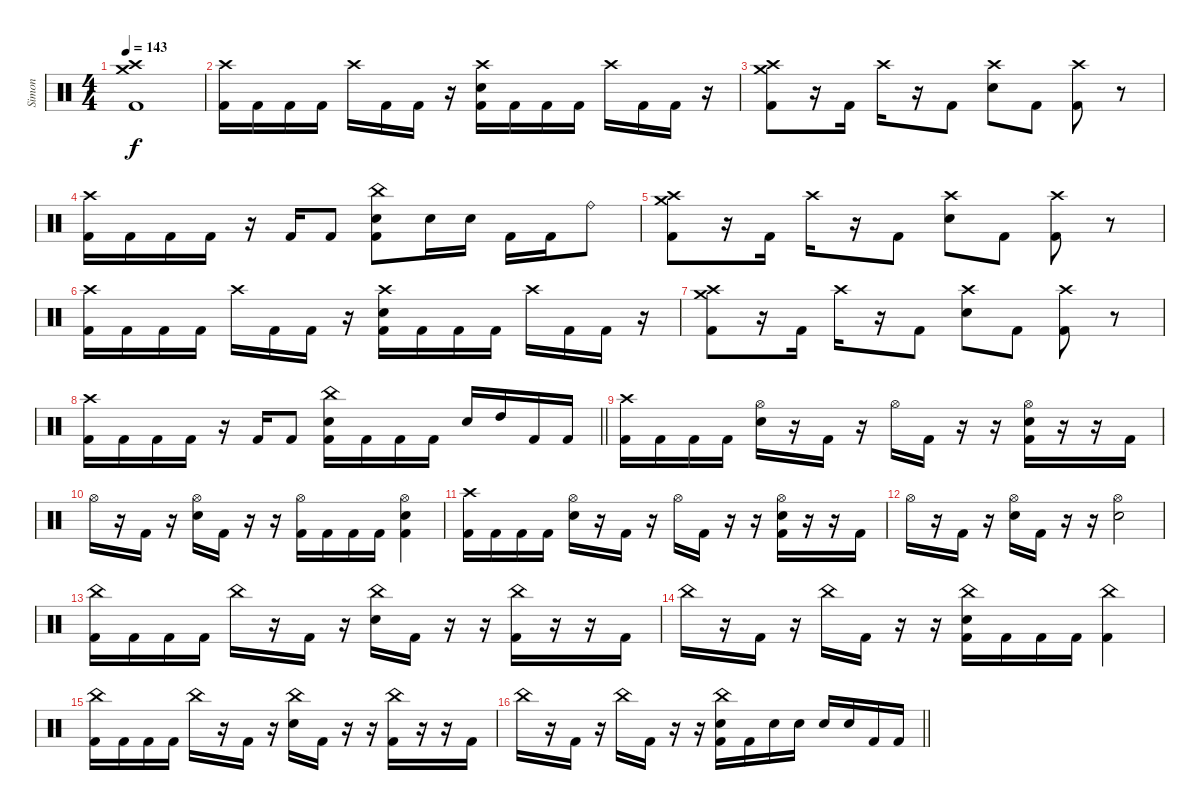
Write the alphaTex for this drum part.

\track ("Simon" "Simon") {instrument percussion}
\staff {score}
\articulation defaults
\ts (4 4)
\section ("" "")
\tempo 143
\clef neutral
\ks c
("Crash high (hit)" "Crash medium (hit)" "Kick (hit) 2").1{dy f} |
("Crash high (hit)" "Kick (hit) 2").16 "Kick (hit) 2".16 "Kick (hit) 2".16 "Kick (hit) 2".16 "Crash high (hit)".16 "Kick (hit) 2".16 "Kick (hit) 2".16 r.16 ("Crash high (hit)" "Electric Snare (hit)" "Kick (hit) 2").16 "Kick (hit) 2".16 "Kick (hit) 2".16 "Kick (hit) 2".16 "Crash high (hit)".16 "Kick (hit) 2".16 "Kick (hit) 2".16 r.16 |
("Crash high (hit)" "Crash medium (hit)" "Kick (hit) 2").8 r.16 "Kick (hit) 2".16 "Crash high (hit)".16 r.16 "Kick (hit) 2".8 ("Crash high (hit)" "Electric Snare (hit)").8 "Kick (hit) 2".8 ("Crash high (hit)" "Kick (hit) 2").8 r.8 |
("Crash high (hit)" "Kick (hit) 2").16 "Kick (hit) 2".16 "Kick (hit) 2".16 "Kick (hit) 2".16 r.16 "Kick (hit) 2".16 "Kick (hit) 2".8 ("China (hit)" "Electric Snare (hit)" "Kick (hit) 2").8 "Electric Snare (hit)".16 "Electric Snare (hit)".16 "Kick (hit) 2".16 "Kick (hit) 2".16 "Ride (bell)".8 |
("Crash high (hit)" "Crash medium (hit)" "Kick (hit) 2").8 r.16 "Kick (hit) 2".16 "Crash high (hit)".16 r.16 "Kick (hit) 2".8 ("Crash high (hit)" "Electric Snare (hit)").8 "Kick (hit) 2".8 ("Crash high (hit)" "Kick (hit) 2").8 r.8 |
("Crash high (hit)" "Kick (hit) 2").16 "Kick (hit) 2".16 "Kick (hit) 2".16 "Kick (hit) 2".16 "Crash high (hit)".16 "Kick (hit) 2".16 "Kick (hit) 2".16 r.16 ("Crash high (hit)" "Electric Snare (hit)" "Kick (hit) 2").16 "Kick (hit) 2".16 "Kick (hit) 2".16 "Kick (hit) 2".16 "Crash high (hit)".16 "Kick (hit) 2".16 "Kick (hit) 2".16 r.16 |
("Crash high (hit)" "Crash medium (hit)" "Kick (hit) 2").8 r.16 "Kick (hit) 2".16 "Crash high (hit)".16 r.16 "Kick (hit) 2".8 ("Crash high (hit)" "Electric Snare (hit)").8 "Kick (hit) 2".8 ("Crash high (hit)" "Kick (hit) 2").8 r.8 |
\barLineRight lightlight
("Crash high (hit)" "Kick (hit) 2").16 "Kick (hit) 2".16 "Kick (hit) 2".16 "Kick (hit) 2".16 r.16 "Kick (hit) 2".16 "Kick (hit) 2".8 ("China (hit)" "Electric Snare (hit)" "Kick (hit) 2").16 "Kick (hit) 2".16 "Kick (hit) 2".16 "Kick (hit) 2".16 "Electric Snare (hit)".16 "High Tom (hit)".16 "Kick (hit) 2".16 "Kick (hit) 2".16 |
\section ("" "")
("Crash high (hit)" "Kick (hit) 2").16 "Kick (hit) 2".16 "Kick (hit) 2".16 "Kick (hit) 2".16 ("Hi-Hat (open)" "Electric Snare (hit)").16 r.16 "Kick (hit) 2".16 r.16 "Hi-Hat (open)".16 "Kick (hit) 2".16 r.16 r.16 ("Hi-Hat (open)" "Electric Snare (hit)" "Kick (hit) 2").16 r.16 r.16 "Kick (hit) 2".16 |
"Hi-Hat (open)".16 r.16 "Kick (hit) 2".16 r.16 ("Hi-Hat (open)" "Electric Snare (hit)").16 "Kick (hit) 2".16 r.16 r.16 ("Hi-Hat (open)" "Kick (hit) 2").16 "Kick (hit) 2".16 "Kick (hit) 2".16 "Kick (hit) 2".16 ("Hi-Hat (open)" "Electric Snare (hit)" "Kick (hit) 2").4 |
("Crash high (hit)" "Kick (hit) 2").16 "Kick (hit) 2".16 "Kick (hit) 2".16 "Kick (hit) 2".16 ("Hi-Hat (open)" "Electric Snare (hit)").16 r.16 "Kick (hit) 2".16 r.16 "Hi-Hat (open)".16 "Kick (hit) 2".16 r.16 r.16 ("Hi-Hat (open)" "Electric Snare (hit)" "Kick (hit) 2").16 r.16 r.16 "Kick (hit) 2".16 |
"Hi-Hat (open)".16 r.16 "Kick (hit) 2".16 r.16 ("Hi-Hat (open)" "Electric Snare (hit)").16 "Kick (hit) 2".16 r.16 r.16 ("Hi-Hat (open)" "Electric Snare (hit)").2 |
("China (hit)" "Kick (hit) 2").16 "Kick (hit) 2".16 "Kick (hit) 2".16 "Kick (hit) 2".16 "China (hit)".16 r.16 "Kick (hit) 2".16 r.16 ("China (hit)" "Electric Snare (hit)").16 "Kick (hit) 2".16 r.16 r.16 ("China (hit)" "Kick (hit) 2").16 r.16 r.16 "Kick (hit) 2".16 |
"China (hit)".16 r.16 "Kick (hit) 2".16 r.16 "China (hit)".16 "Kick (hit) 2".16 r.16 r.16 ("China (hit)" "Electric Snare (hit)" "Kick (hit) 2").16 "Kick (hit) 2".16 "Kick (hit) 2".16 "Kick (hit) 2".16 ("China (hit)" "Kick (hit) 2").4 |
("China (hit)" "Kick (hit) 2").16 "Kick (hit) 2".16 "Kick (hit) 2".16 "Kick (hit) 2".16 "China (hit)".16 r.16 "Kick (hit) 2".16 r.16 ("China (hit)" "Electric Snare (hit)").16 "Kick (hit) 2".16 r.16 r.16 ("China (hit)" "Kick (hit) 2").16 r.16 r.16 "Kick (hit) 2".16 |
\barLineRight lightlight "China (hit)".16
r.16 "Kick (hit) 2".16 r.16 "China (hit)".16 "Kick (hit) 2".16 r.16 r.16 ("China (hit)" "Electric Snare (hit)" "Kick (hit) 2").16 "Kick (hit) 2".16 "Electric Snare (hit)".16 "Electric Snare (hit)".16 "Electric Snare (hit)".16 "Electric Snare (hit)".16 "Kick (hit) 2".16 "Kick (hit) 2".16
